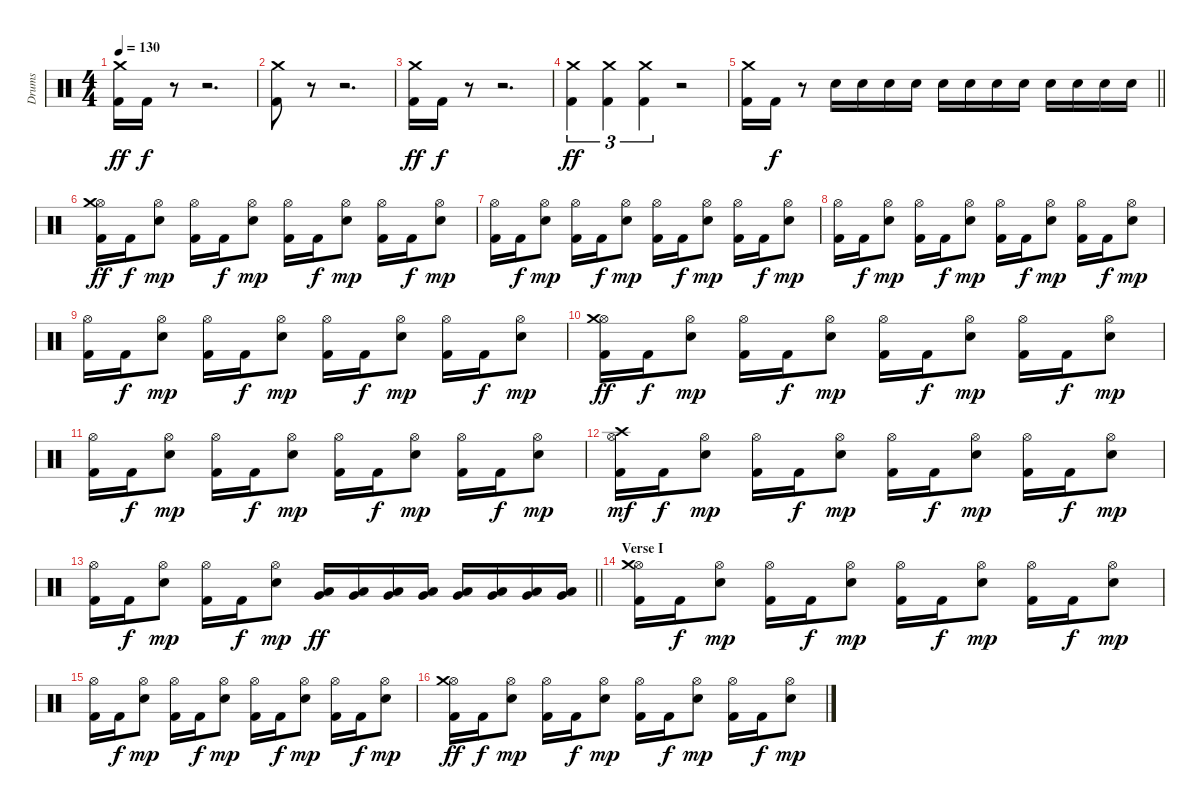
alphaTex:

\track ("Drums" "Drums") {instrument percussion}
\staff {score}
\articulation defaults
\ts (4 4)
\tempo 130
\clef neutral
\ks c
("Kick (hit) 2" "Crash medium (hit)").16{dy ff} "Kick (hit) 2".16{dy f} r.8 r.2{d} |
("Kick (hit) 2" "Crash medium (hit)").8 r.8 r.2{d} |
("Kick (hit) 2" "Crash medium (hit)").16{dy ff} "Kick (hit) 2".16{dy f} r.8 r.2{d} |
("Kick (hit) 2" "Crash medium (hit)").4{tu (3 2) dy ff} ("Kick (hit) 2" "Crash medium (hit)").4{tu (3 2)} ("Kick (hit) 2" "Crash medium (hit)").4{tu (3 2)} r.2 |
\barLineRight lightlight
("Kick (hit) 2" "Crash medium (hit)").16 "Kick (hit) 2".16{dy f} r.8 "Snare (hit) 2".16 "Snare (hit) 2".16 "Snare (hit) 2".16 "Snare (hit) 2".16 "Snare (hit) 2".16 "Snare (hit) 2".16 "Snare (hit) 2".16 "Snare (hit) 2".16 "Snare (hit) 2".16 "Snare (hit) 2".16 "Snare (hit) 2".16 "Snare (hit) 2".16 |
\section ("" "")
("Kick (hit) 2" "Hi-Hat (open)" "Crash medium (hit)").16{dy ff} "Kick (hit) 2".16{dy f} ("Hi-Hat (open)" "Snare (hit) 2").8{dy mp} ("Kick (hit) 2" "Hi-Hat (open)").16 "Kick (hit) 2".16{dy f} ("Hi-Hat (open)" "Snare (hit) 2").8{dy mp} ("Kick (hit) 2" "Hi-Hat (open)").16 "Kick (hit) 2".16{dy f} ("Hi-Hat (open)" "Snare (hit) 2").8{dy mp} ("Kick (hit) 2" "Hi-Hat (open)").16 "Kick (hit) 2".16{dy f} ("Hi-Hat (open)" "Snare (hit) 2").8{dy mp} |
("Kick (hit) 2" "Hi-Hat (open)").16 "Kick (hit) 2".16{dy f} ("Hi-Hat (open)" "Snare (hit) 2").8{dy mp} ("Kick (hit) 2" "Hi-Hat (open)").16 "Kick (hit) 2".16{dy f} ("Hi-Hat (open)" "Snare (hit) 2").8{dy mp} ("Kick (hit) 2" "Hi-Hat (open)").16 "Kick (hit) 2".16{dy f} ("Hi-Hat (open)" "Snare (hit) 2").8{dy mp} ("Kick (hit) 2" "Hi-Hat (open)").16 "Kick (hit) 2".16{dy f} ("Hi-Hat (open)" "Snare (hit) 2").8{dy mp} |
("Kick (hit) 2" "Hi-Hat (open)").16 "Kick (hit) 2".16{dy f} ("Hi-Hat (open)" "Snare (hit) 2").8{dy mp} ("Kick (hit) 2" "Hi-Hat (open)").16 "Kick (hit) 2".16{dy f} ("Hi-Hat (open)" "Snare (hit) 2").8{dy mp} ("Kick (hit) 2" "Hi-Hat (open)").16 "Kick (hit) 2".16{dy f} ("Hi-Hat (open)" "Snare (hit) 2").8{dy mp} ("Kick (hit) 2" "Hi-Hat (open)").16 "Kick (hit) 2".16{dy f} ("Hi-Hat (open)" "Snare (hit) 2").8{dy mp} |
("Kick (hit) 2" "Hi-Hat (open)").16 "Kick (hit) 2".16{dy f} ("Hi-Hat (open)" "Snare (hit) 2").8{dy mp} ("Kick (hit) 2" "Hi-Hat (open)").16 "Kick (hit) 2".16{dy f} ("Hi-Hat (open)" "Snare (hit) 2").8{dy mp} ("Kick (hit) 2" "Hi-Hat (open)").16 "Kick (hit) 2".16{dy f} ("Hi-Hat (open)" "Snare (hit) 2").8{dy mp} ("Kick (hit) 2" "Hi-Hat (open)").16 "Kick (hit) 2".16{dy f} ("Hi-Hat (open)" "Snare (hit) 2").8{dy mp} |
("Kick (hit) 2" "Hi-Hat (open)" "Crash medium (hit)").16{dy ff} "Kick (hit) 2".16{dy f} ("Hi-Hat (open)" "Snare (hit) 2").8{dy mp} ("Kick (hit) 2" "Hi-Hat (open)").16 "Kick (hit) 2".16{dy f} ("Hi-Hat (open)" "Snare (hit) 2").8{dy mp} ("Kick (hit) 2" "Hi-Hat (open)").16 "Kick (hit) 2".16{dy f} ("Hi-Hat (open)" "Snare (hit) 2").8{dy mp} ("Kick (hit) 2" "Hi-Hat (open)").16 "Kick (hit) 2".16{dy f} ("Hi-Hat (open)" "Snare (hit) 2").8{dy mp} |
("Kick (hit) 2" "Hi-Hat (open)").16 "Kick (hit) 2".16{dy f} ("Hi-Hat (open)" "Snare (hit) 2").8{dy mp} ("Kick (hit) 2" "Hi-Hat (open)").16 "Kick (hit) 2".16{dy f} ("Hi-Hat (open)" "Snare (hit) 2").8{dy mp} ("Kick (hit) 2" "Hi-Hat (open)").16 "Kick (hit) 2".16{dy f} ("Hi-Hat (open)" "Snare (hit) 2").8{dy mp} ("Kick (hit) 2" "Hi-Hat (open)").16 "Kick (hit) 2".16{dy f} ("Hi-Hat (open)" "Snare (hit) 2").8{dy mp} |
("Kick (hit) 2" "Hi-Hat (open)" "Crash high (hit)").16{dy mf} "Kick (hit) 2".16{dy f} ("Hi-Hat (open)" "Snare (hit) 2").8{dy mp} ("Kick (hit) 2" "Hi-Hat (open)").16 "Kick (hit) 2".16{dy f} ("Hi-Hat (open)" "Snare (hit) 2").8{dy mp} ("Kick (hit) 2" "Hi-Hat (open)").16 "Kick (hit) 2".16{dy f} ("Hi-Hat (open)" "Snare (hit) 2").8{dy mp} ("Kick (hit) 2" "Hi-Hat (open)").16 "Kick (hit) 2".16{dy f} ("Hi-Hat (open)" "Snare (hit) 2").8{dy mp} |
\barLineRight lightlight
("Kick (hit) 2" "Hi-Hat (open)").16 "Kick (hit) 2".16{dy f} ("Hi-Hat (open)" "Snare (hit) 2").8{dy mp} ("Kick (hit) 2" "Hi-Hat (open)").16 "Kick (hit) 2".16{dy f} ("Hi-Hat (open)" "Snare (hit) 2").8{dy mp} ("Very Low Tom (hit)" "Low Tom (hit)").16{dy ff} ("Very Low Tom (hit)" "Low Tom (hit)").16 ("Very Low Tom (hit)" "Low Tom (hit)").16 ("Very Low Tom (hit)" "Low Tom (hit)").16 ("Low Floor Tom (hit)" "Very Low Tom (hit)").16 ("Low Floor Tom (hit)" "Very Low Tom (hit)").16 ("Low Floor Tom (hit)" "Very Low Tom (hit)").16 ("Low Floor Tom (hit)" "Very Low Tom (hit)").16 |
\section ("" "Verse I")
("Kick (hit) 2" "Hi-Hat (open)" "Crash medium (hit)").16 "Kick (hit) 2".16{dy f} ("Hi-Hat (open)" "Snare (hit) 2").8{dy mp} ("Kick (hit) 2" "Hi-Hat (open)").16 "Kick (hit) 2".16{dy f} ("Hi-Hat (open)" "Snare (hit) 2").8{dy mp} ("Kick (hit) 2" "Hi-Hat (open)").16 "Kick (hit) 2".16{dy f} ("Hi-Hat (open)" "Snare (hit) 2").8{dy mp} ("Kick (hit) 2" "Hi-Hat (open)").16 "Kick (hit) 2".16{dy f} ("Hi-Hat (open)" "Snare (hit) 2").8{dy mp} |
("Kick (hit) 2" "Hi-Hat (open)").16 "Kick (hit) 2".16{dy f} ("Hi-Hat (open)" "Snare (hit) 2").8{dy mp} ("Kick (hit) 2" "Hi-Hat (open)").16 "Kick (hit) 2".16{dy f} ("Hi-Hat (open)" "Snare (hit) 2").8{dy mp} ("Kick (hit) 2" "Hi-Hat (open)").16 "Kick (hit) 2".16{dy f} ("Hi-Hat (open)" "Snare (hit) 2").8{dy mp} ("Kick (hit) 2" "Hi-Hat (open)").16 "Kick (hit) 2".16{dy f} ("Hi-Hat (open)" "Snare (hit) 2").8{dy mp} |
("Kick (hit) 2" "Hi-Hat (open)" "Crash medium (hit)").16{dy ff} "Kick (hit) 2".16{dy f} ("Hi-Hat (open)" "Snare (hit) 2").8{dy mp} ("Kick (hit) 2" "Hi-Hat (open)").16 "Kick (hit) 2".16{dy f} ("Hi-Hat (open)" "Snare (hit) 2").8{dy mp} ("Kick (hit) 2" "Hi-Hat (open)").16 "Kick (hit) 2".16{dy f} ("Hi-Hat (open)" "Snare (hit) 2").8{dy mp} ("Kick (hit) 2" "Hi-Hat (open)").16 "Kick (hit) 2".16{dy f} ("Hi-Hat (open)" "Snare (hit) 2").8{dy mp}
